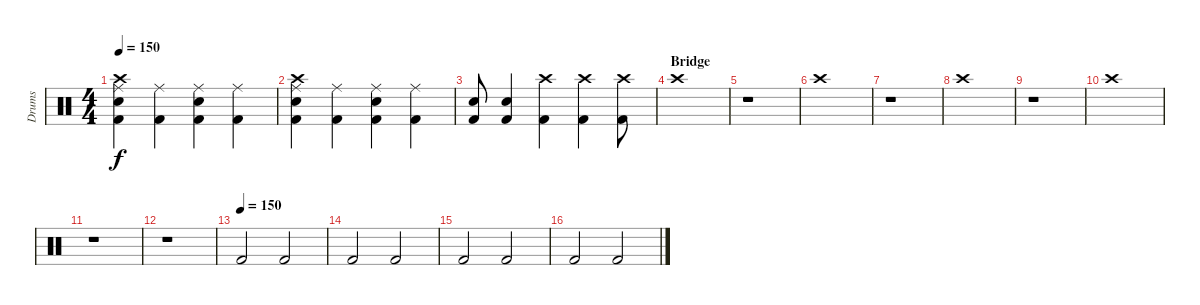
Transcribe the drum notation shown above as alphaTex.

\track ("Drums" "Drums") {instrument percussion}
\staff {score}
\articulation defaults
\ts (4 4)
\tempo 150
\clef neutral
\ks c
("Crash high (hit)" "Ride (middle)" "Electric Snare (hit)" "Kick (hit) 2").4{dy f} ("Ride (middle)" "Kick (hit) 2").4 ("Ride (middle)" "Electric Snare (hit)" "Kick (hit) 2").4 ("Ride (middle)" "Kick (hit) 2").4 |
("Crash high (hit)" "Ride (middle)" "Electric Snare (hit)" "Kick (hit) 2").4 ("Ride (middle)" "Kick (hit) 2").4 ("Ride (middle)" "Electric Snare (hit)" "Kick (hit) 2").4 ("Ride (middle)" "Kick (hit) 2").4 |
("Snare (hit) 2" "Kick (hit) 2").8 ("Snare (hit) 2" "Kick (hit) 2").4 ("Crash high (hit)" "Kick (hit) 2").4 ("Crash high (hit)" "Kick (hit) 2").4 ("Crash high (hit)" "Kick (hit) 2").8 |
\section ("" "Bridge")
"Crash high (hit)".1 |
r.1 |
"Crash high (hit)".1 |
r.1 |
"Crash high (hit)".1 |
r.1 |
"Crash high (hit)".1 |
r.1 |
r.1 |
\tempo (150)
"Kick (hit) 2".2 "Kick (hit) 2".2 |
"Kick (hit) 2".2 "Kick (hit) 2".2 |
"Kick (hit) 2".2 "Kick (hit) 2".2 |
"Kick (hit) 2".2 "Kick (hit) 2".2
